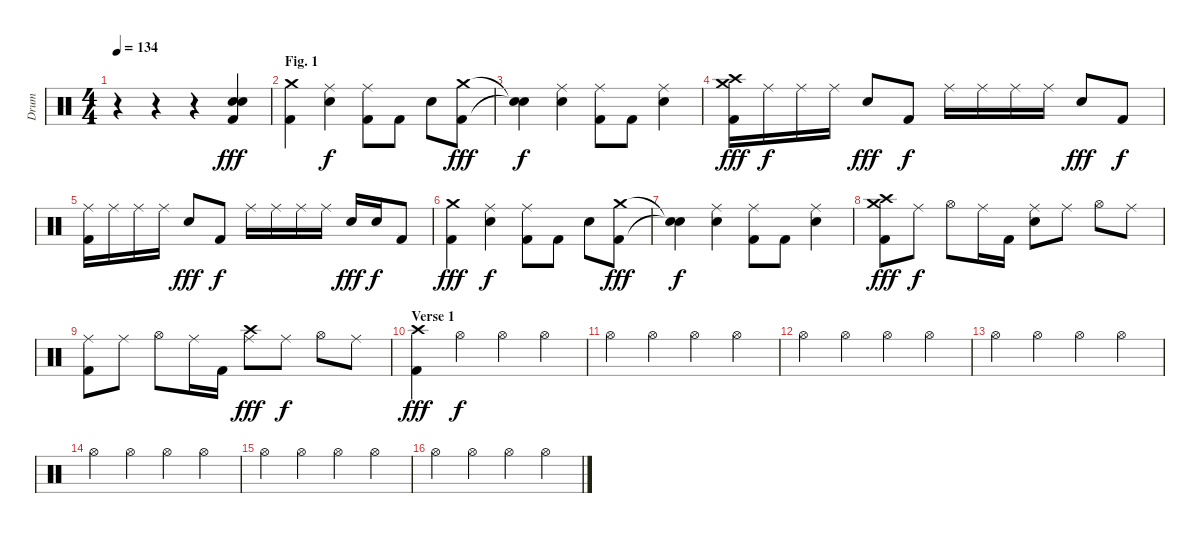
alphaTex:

\track ("Drum" "Drum") {instrument percussion}
\staff {score}
\articulation defaults
\ts (4 4)
\tempo 134
\clef neutral
\ks c
r.4{dy fff} r.4 r.4 ("Snare (hit) 2" "Snare (hit) 2" "Kick (hit) 2").4 |
\section ("" "Fig. 1")
("Crash medium (hit)" "Kick (hit) 2").4 ("Ride (middle)" "Snare (hit) 2").4{dy f} ("Ride (middle)" "Kick (hit) 2").8 "Kick (hit) 2".8 "Snare (hit) 2".8 ("Crash medium (hit)" "Kick (hit) 2").8{dy fff} |
("Snare (hit)"{t} "Snare (hit)"{t}).4{dy f} ("Ride (middle)" "Snare (hit) 2").4 ("Ride (middle)" "Kick (hit) 2").8 "Kick (hit) 2".8 ("Ride (middle)" "Snare (hit) 2").4 |
("Crash medium (hit)" "Crash high (hit)" "Kick (hit) 2").16{dy fff} "Ride (middle)".16{dy f} "Ride (middle)".16 "Ride (middle)".16 "Snare (hit) 2".8{dy fff} "Kick (hit) 2".8{dy f} "Ride (middle)".16 "Ride (middle)".16 "Ride (middle)".16 "Ride (middle)".16 "Snare (hit) 2".8{dy fff} "Kick (hit) 2".8{dy f} |
("Ride (middle)" "Kick (hit) 2").16 "Ride (middle)".16 "Ride (middle)".16 "Ride (middle)".16 "Snare (hit) 2".8{dy fff} "Kick (hit) 2".8{dy f} "Ride (middle)".16 "Ride (middle)".16 "Ride (middle)".16 "Ride (middle)".16 "Snare (hit) 2".16{dy fff} "Snare (hit) 2".16{dy f} "Kick (hit) 2".8 |
("Crash medium (hit)" "Kick (hit) 2").4{dy fff} ("Ride (middle)" "Snare (hit) 2").4{dy f} ("Ride (middle)" "Kick (hit) 2").8 "Kick (hit) 2".8 "Snare (hit) 2".8 ("Crash medium (hit)" "Kick (hit) 2").8{dy fff} |
("Snare (hit)"{t} "Snare (hit)"{t}).4{dy f} ("Ride (middle)" "Snare (hit) 2").4 ("Ride (middle)" "Kick (hit) 2").8 "Kick (hit) 2".8 ("Ride (middle)" "Snare (hit) 2").4 |
("Crash medium (hit)" "Crash high (hit)" "Kick (hit) 2").8{dy fff} "Ride (middle)".8{dy f} "Hi-Hat (open)".8 "Ride (middle)".16 "Kick (hit) 2".16 ("Ride (middle)" "Snare (hit) 2").8 "Ride (middle)".8 "Hi-Hat (open)".8 "Ride (middle)".8 |
("Ride (middle)" "Kick (hit) 2").8 "Ride (middle)".8 "Hi-Hat (open)".8 "Ride (middle)".16 "Kick (hit) 2".16 ("Crash high (hit)" "Ride (middle)").8{dy fff} "Ride (middle)".8{dy f} "Hi-Hat (open)".8 "Ride (middle)".8 |
\section ("" "Verse 1")
("Crash high (hit)" "Kick (hit) 2").4{dy fff} "Hi-Hat (open)".4{dy f} "Hi-Hat (open)".4 "Hi-Hat (open)".4 |
"Hi-Hat (open)".4 "Hi-Hat (open)".4 "Hi-Hat (open)".4 "Hi-Hat (open)".4 |
"Hi-Hat (open)".4 "Hi-Hat (open)".4 "Hi-Hat (open)".4 "Hi-Hat (open)".4 |
"Hi-Hat (open)".4 "Hi-Hat (open)".4 "Hi-Hat (open)".4 "Hi-Hat (open)".4 |
"Hi-Hat (open)".4 "Hi-Hat (open)".4 "Hi-Hat (open)".4 "Hi-Hat (open)".4 |
"Hi-Hat (open)".4 "Hi-Hat (open)".4 "Hi-Hat (open)".4 "Hi-Hat (open)".4 |
"Hi-Hat (open)".4 "Hi-Hat (open)".4 "Hi-Hat (open)".4 "Hi-Hat (open)".4
